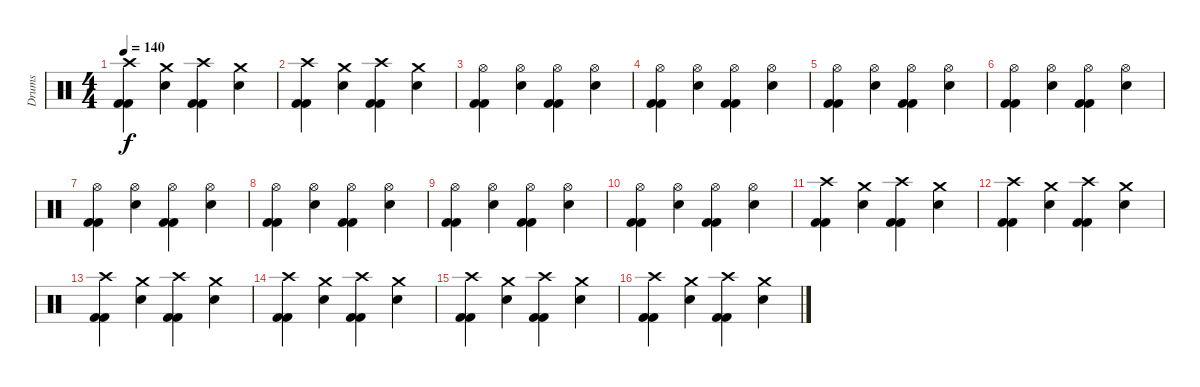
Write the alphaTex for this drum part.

\track ("Drums" "Drums") {instrument percussion}
\staff {score}
\articulation defaults
\ts (4 4)
\tempo 140
\clef neutral
\ks c
("Crash high (hit)" "Kick (hit) 2" "Kick (hit) 2").4{dy f} ("Crash medium (hit)" "Electric Snare (hit)").4 ("Crash high (hit)" "Kick (hit) 2" "Kick (hit) 2").4 ("Crash medium (hit)" "Electric Snare (hit)").4 |
("Crash high (hit)" "Kick (hit) 2" "Kick (hit) 2").4 ("Crash medium (hit)" "Electric Snare (hit)").4 ("Crash high (hit)" "Kick (hit) 2" "Kick (hit) 2").4 ("Crash medium (hit)" "Electric Snare (hit)").4 |
("Hi-Hat (open)" "Kick (hit) 2" "Kick (hit) 2").4 ("Hi-Hat (open)" "Electric Snare (hit)").4 ("Hi-Hat (open)" "Kick (hit) 2" "Kick (hit) 2").4 ("Hi-Hat (open)" "Electric Snare (hit)").4 |
("Hi-Hat (open)" "Kick (hit) 2" "Kick (hit) 2").4 ("Hi-Hat (open)" "Electric Snare (hit)").4 ("Hi-Hat (open)" "Kick (hit) 2" "Kick (hit) 2").4 ("Hi-Hat (open)" "Electric Snare (hit)").4 |
("Hi-Hat (open)" "Kick (hit) 2" "Kick (hit) 2").4 ("Hi-Hat (open)" "Electric Snare (hit)").4 ("Hi-Hat (open)" "Kick (hit) 2" "Kick (hit) 2").4 ("Hi-Hat (open)" "Electric Snare (hit)").4 |
("Hi-Hat (open)" "Kick (hit) 2" "Kick (hit) 2").4 ("Hi-Hat (open)" "Electric Snare (hit)").4 ("Hi-Hat (open)" "Kick (hit) 2" "Kick (hit) 2").4 ("Hi-Hat (open)" "Electric Snare (hit)").4 |
("Hi-Hat (open)" "Kick (hit) 2" "Kick (hit) 2").4 ("Hi-Hat (open)" "Electric Snare (hit)").4 ("Hi-Hat (open)" "Kick (hit) 2" "Kick (hit) 2").4 ("Hi-Hat (open)" "Electric Snare (hit)").4 |
("Hi-Hat (open)" "Kick (hit) 2" "Kick (hit) 2").4 ("Hi-Hat (open)" "Electric Snare (hit)").4 ("Hi-Hat (open)" "Kick (hit) 2" "Kick (hit) 2").4 ("Hi-Hat (open)" "Electric Snare (hit)").4 |
("Hi-Hat (open)" "Kick (hit) 2" "Kick (hit) 2").4 ("Hi-Hat (open)" "Electric Snare (hit)").4 ("Hi-Hat (open)" "Kick (hit) 2" "Kick (hit) 2").4 ("Hi-Hat (open)" "Electric Snare (hit)").4 |
("Hi-Hat (open)" "Kick (hit) 2" "Kick (hit) 2").4 ("Hi-Hat (open)" "Electric Snare (hit)").4 ("Hi-Hat (open)" "Kick (hit) 2" "Kick (hit) 2").4 ("Hi-Hat (open)" "Electric Snare (hit)").4 |
("Crash high (hit)" "Kick (hit) 2" "Kick (hit) 2").4 ("Crash medium (hit)" "Electric Snare (hit)").4 ("Crash high (hit)" "Kick (hit) 2" "Kick (hit) 2").4 ("Crash medium (hit)" "Electric Snare (hit)").4 |
("Crash high (hit)" "Kick (hit) 2" "Kick (hit) 2").4 ("Crash medium (hit)" "Electric Snare (hit)").4 ("Crash high (hit)" "Kick (hit) 2" "Kick (hit) 2").4 ("Crash medium (hit)" "Electric Snare (hit)").4 |
("Crash high (hit)" "Kick (hit) 2" "Kick (hit) 2").4 ("Crash medium (hit)" "Electric Snare (hit)").4 ("Crash high (hit)" "Kick (hit) 2" "Kick (hit) 2").4 ("Crash medium (hit)" "Electric Snare (hit)").4 |
("Crash high (hit)" "Kick (hit) 2" "Kick (hit) 2").4 ("Crash medium (hit)" "Electric Snare (hit)").4 ("Crash high (hit)" "Kick (hit) 2" "Kick (hit) 2").4 ("Crash medium (hit)" "Electric Snare (hit)").4 |
("Crash high (hit)" "Kick (hit) 2" "Kick (hit) 2").4 ("Crash medium (hit)" "Electric Snare (hit)").4 ("Crash high (hit)" "Kick (hit) 2" "Kick (hit) 2").4 ("Crash medium (hit)" "Electric Snare (hit)").4 |
("Crash high (hit)" "Kick (hit) 2" "Kick (hit) 2").4 ("Crash medium (hit)" "Electric Snare (hit)").4 ("Crash high (hit)" "Kick (hit) 2" "Kick (hit) 2").4 ("Crash medium (hit)" "Electric Snare (hit)").4
